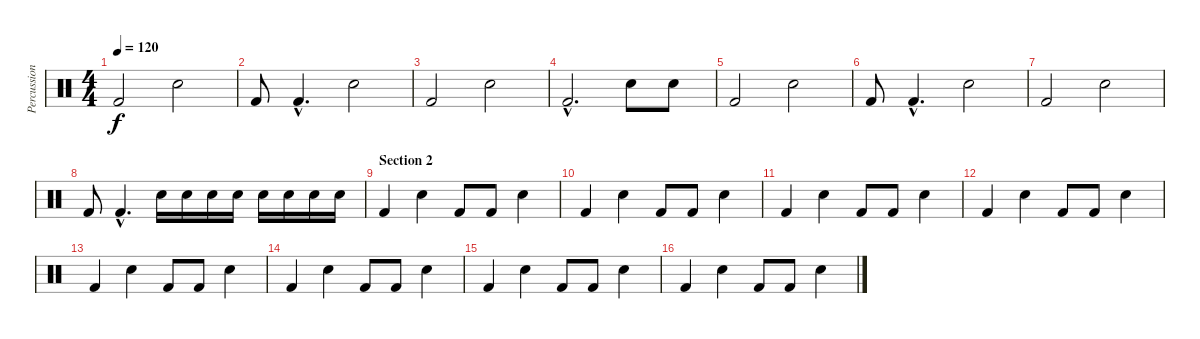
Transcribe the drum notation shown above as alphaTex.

\track ("Percussions" "Percussion") {instrument percussion}
\staff {score}
\articulation defaults
\ts (4 4)
\tempo 120
\clef neutral
\ks c "Kick (hit) 2".2{dy f} "Snare (hit) 2".2
|
"Kick (hit) 2".8 "Kick (hit) 2"{hac}.4{d} "Electric Snare (hit)".2 |
"Kick (hit) 2".2 "Snare (hit) 2".2 |
"Kick (hit) 2"{hac}.2{d} "Electric Snare (hit)".8 "Electric Snare (hit)".8 |
"Kick (hit) 2".2 "Snare (hit) 2".2 |
"Kick (hit) 2".8 "Kick (hit) 2"{hac}.4{d} "Electric Snare (hit)".2 |
"Kick (hit) 2".2 "Snare (hit) 2".2 |
"Kick (hit) 2".8 "Kick (hit) 2"{hac}.4{d} "Electric Snare (hit)".16 "Electric Snare (hit)".16 "Electric Snare (hit)".16 "Electric Snare (hit)".16 "Electric Snare (hit)".16 "Electric Snare (hit)".16 "Electric Snare (hit)".16 "Electric Snare (hit)".16 |
\section ("" "Section 2")
"Kick (hit) 2".4 "Snare (hit) 2".4 "Kick (hit) 2".8 "Kick (hit) 2".8 "Electric Snare (hit)".4 |
"Kick (hit) 2".4 "Snare (hit) 2".4 "Kick (hit) 2".8 "Kick (hit) 2".8 "Electric Snare (hit)".4 |
"Kick (hit) 2".4 "Snare (hit) 2".4 "Kick (hit) 2".8 "Kick (hit) 2".8 "Electric Snare (hit)".4 |
"Kick (hit) 2".4 "Snare (hit) 2".4 "Kick (hit) 2".8 "Kick (hit) 2".8 "Electric Snare (hit)".4 |
"Kick (hit) 2".4 "Snare (hit) 2".4 "Kick (hit) 2".8 "Kick (hit) 2".8 "Electric Snare (hit)".4 |
"Kick (hit) 2".4 "Snare (hit) 2".4 "Kick (hit) 2".8 "Kick (hit) 2".8 "Electric Snare (hit)".4 |
"Kick (hit) 2".4 "Snare (hit) 2".4 "Kick (hit) 2".8 "Kick (hit) 2".8 "Electric Snare (hit)".4 |
"Kick (hit) 2".4 "Snare (hit) 2".4 "Kick (hit) 2".8 "Kick (hit) 2".8 "Electric Snare (hit)".4
